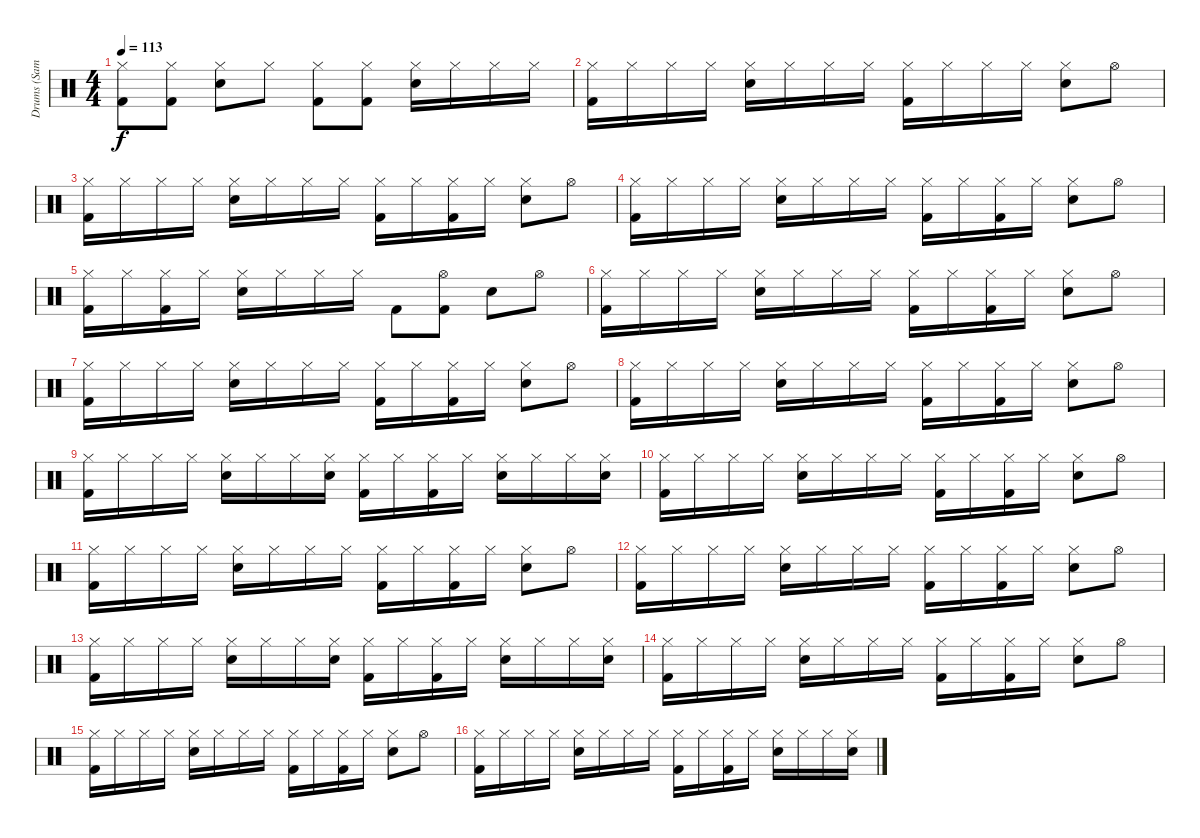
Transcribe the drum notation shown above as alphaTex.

\track ("Drums (Sam)" "Drums (Sam") {instrument percussion}
\staff {score}
\articulation defaults
\ts (4 4)
\tempo 113
\clef neutral
\ks c
("Hi-Hat (closed)" "Kick (hit) 2").8{dy f} ("Hi-Hat (closed)" "Kick (hit) 2").8 ("Hi-Hat (closed)" "Snare (hit) 2").8 "Hi-Hat (closed)".8 ("Hi-Hat (closed)" "Kick (hit) 2").8 ("Hi-Hat (closed)" "Kick (hit) 2").8 ("Hi-Hat (closed)" "Snare (hit) 2").16 "Hi-Hat (closed)".16 "Hi-Hat (closed)".16 "Hi-Hat (closed)".16 |
("Hi-Hat (closed)" "Kick (hit) 2").16 "Hi-Hat (closed)".16 "Hi-Hat (closed)".16 "Hi-Hat (closed)".16 ("Hi-Hat (closed)" "Snare (hit) 2").16 "Hi-Hat (closed)".16 "Hi-Hat (closed)".16 "Hi-Hat (closed)".16 ("Hi-Hat (closed)" "Kick (hit) 2").16 "Hi-Hat (closed)".16 "Hi-Hat (closed)".16 "Hi-Hat (closed)".16 ("Hi-Hat (closed)" "Snare (hit) 2").8 "Hi-Hat (open)".8 |
("Hi-Hat (closed)" "Kick (hit) 2").16 "Hi-Hat (closed)".16 "Hi-Hat (closed)".16 "Hi-Hat (closed)".16 ("Hi-Hat (closed)" "Snare (hit) 2").16 "Hi-Hat (closed)".16 "Hi-Hat (closed)".16 "Hi-Hat (closed)".16 ("Hi-Hat (closed)" "Kick (hit) 2").16 "Hi-Hat (closed)".16 ("Hi-Hat (closed)" "Kick (hit) 2").16 "Hi-Hat (closed)".16 ("Hi-Hat (closed)" "Snare (hit) 2").8 "Hi-Hat (open)".8 |
("Hi-Hat (closed)" "Kick (hit) 2").16 "Hi-Hat (closed)".16 "Hi-Hat (closed)".16 "Hi-Hat (closed)".16 ("Hi-Hat (closed)" "Snare (hit) 2").16 "Hi-Hat (closed)".16 "Hi-Hat (closed)".16 "Hi-Hat (closed)".16 ("Hi-Hat (closed)" "Kick (hit) 2").16 "Hi-Hat (closed)".16 ("Hi-Hat (closed)" "Kick (hit) 2").16 "Hi-Hat (closed)".16 ("Hi-Hat (closed)" "Snare (hit) 2").8 "Hi-Hat (open)".8 |
("Hi-Hat (closed)" "Kick (hit) 2").16 "Hi-Hat (closed)".16 ("Hi-Hat (closed)" "Kick (hit) 2").16 "Hi-Hat (closed)".16 ("Hi-Hat (closed)" "Snare (hit) 2").16 "Hi-Hat (closed)".16 "Hi-Hat (closed)".16 "Hi-Hat (closed)".16 "Kick (hit) 2".8 ("Hi-Hat (open)" "Kick (hit) 2").8 "Snare (hit) 2".8 "Hi-Hat (open)".8 |
("Hi-Hat (closed)" "Kick (hit) 2").16 "Hi-Hat (closed)".16 "Hi-Hat (closed)".16 "Hi-Hat (closed)".16 ("Hi-Hat (closed)" "Snare (hit) 2").16 "Hi-Hat (closed)".16 "Hi-Hat (closed)".16 "Hi-Hat (closed)".16 ("Hi-Hat (closed)" "Kick (hit) 2").16 "Hi-Hat (closed)".16 ("Hi-Hat (closed)" "Kick (hit) 2").16 "Hi-Hat (closed)".16 ("Hi-Hat (closed)" "Snare (hit) 2").8 "Hi-Hat (open)".8 |
("Hi-Hat (closed)" "Kick (hit) 2").16 "Hi-Hat (closed)".16 "Hi-Hat (closed)".16 "Hi-Hat (closed)".16 ("Hi-Hat (closed)" "Snare (hit) 2").16 "Hi-Hat (closed)".16 "Hi-Hat (closed)".16 "Hi-Hat (closed)".16 ("Hi-Hat (closed)" "Kick (hit) 2").16 "Hi-Hat (closed)".16 ("Hi-Hat (closed)" "Kick (hit) 2").16 "Hi-Hat (closed)".16 ("Hi-Hat (closed)" "Snare (hit) 2").8 "Hi-Hat (open)".8 |
("Hi-Hat (closed)" "Kick (hit) 2").16 "Hi-Hat (closed)".16 "Hi-Hat (closed)".16 "Hi-Hat (closed)".16 ("Hi-Hat (closed)" "Snare (hit) 2").16 "Hi-Hat (closed)".16 "Hi-Hat (closed)".16 "Hi-Hat (closed)".16 ("Hi-Hat (closed)" "Kick (hit) 2").16 "Hi-Hat (closed)".16 ("Hi-Hat (closed)" "Kick (hit) 2").16 "Hi-Hat (closed)".16 ("Hi-Hat (closed)" "Snare (hit) 2").8 "Hi-Hat (open)".8 |
("Hi-Hat (closed)" "Kick (hit) 2").16 "Hi-Hat (closed)".16 "Hi-Hat (closed)".16 "Hi-Hat (closed)".16 ("Hi-Hat (closed)" "Snare (hit) 2").16 "Hi-Hat (closed)".16 "Hi-Hat (closed)".16 ("Hi-Hat (closed)" "Snare (hit) 2").16 ("Hi-Hat (closed)" "Kick (hit) 2").16 "Hi-Hat (closed)".16 ("Hi-Hat (closed)" "Kick (hit) 2").16 "Hi-Hat (closed)".16 ("Hi-Hat (closed)" "Snare (hit) 2").16 "Hi-Hat (closed)".16 "Hi-Hat (closed)".16 ("Hi-Hat (closed)" "Snare (hit) 2").16 |
("Hi-Hat (closed)" "Kick (hit) 2").16 "Hi-Hat (closed)".16 "Hi-Hat (closed)".16 "Hi-Hat (closed)".16 ("Hi-Hat (closed)" "Snare (hit) 2").16 "Hi-Hat (closed)".16 "Hi-Hat (closed)".16 "Hi-Hat (closed)".16 ("Hi-Hat (closed)" "Kick (hit) 2").16 "Hi-Hat (closed)".16 ("Hi-Hat (closed)" "Kick (hit) 2").16 "Hi-Hat (closed)".16 ("Hi-Hat (closed)" "Snare (hit) 2").8 "Hi-Hat (open)".8 |
("Hi-Hat (closed)" "Kick (hit) 2").16 "Hi-Hat (closed)".16 "Hi-Hat (closed)".16 "Hi-Hat (closed)".16 ("Hi-Hat (closed)" "Snare (hit) 2").16 "Hi-Hat (closed)".16 "Hi-Hat (closed)".16 "Hi-Hat (closed)".16 ("Hi-Hat (closed)" "Kick (hit) 2").16 "Hi-Hat (closed)".16 ("Hi-Hat (closed)" "Kick (hit) 2").16 "Hi-Hat (closed)".16 ("Hi-Hat (closed)" "Snare (hit) 2").8 "Hi-Hat (open)".8 |
("Hi-Hat (closed)" "Kick (hit) 2").16 "Hi-Hat (closed)".16 "Hi-Hat (closed)".16 "Hi-Hat (closed)".16 ("Hi-Hat (closed)" "Snare (hit) 2").16 "Hi-Hat (closed)".16 "Hi-Hat (closed)".16 "Hi-Hat (closed)".16 ("Hi-Hat (closed)" "Kick (hit) 2").16 "Hi-Hat (closed)".16 ("Hi-Hat (closed)" "Kick (hit) 2").16 "Hi-Hat (closed)".16 ("Hi-Hat (closed)" "Snare (hit) 2").8 "Hi-Hat (open)".8 |
("Hi-Hat (closed)" "Kick (hit) 2").16 "Hi-Hat (closed)".16 "Hi-Hat (closed)".16 "Hi-Hat (closed)".16 ("Hi-Hat (closed)" "Snare (hit) 2").16 "Hi-Hat (closed)".16 "Hi-Hat (closed)".16 ("Hi-Hat (closed)" "Snare (hit) 2").16 ("Hi-Hat (closed)" "Kick (hit) 2").16 "Hi-Hat (closed)".16 ("Hi-Hat (closed)" "Kick (hit) 2").16 "Hi-Hat (closed)".16 ("Hi-Hat (closed)" "Snare (hit) 2").16 "Hi-Hat (closed)".16 "Hi-Hat (closed)".16 ("Hi-Hat (closed)" "Snare (hit) 2").16 |
("Hi-Hat (closed)" "Kick (hit) 2").16 "Hi-Hat (closed)".16 "Hi-Hat (closed)".16 "Hi-Hat (closed)".16 ("Hi-Hat (closed)" "Snare (hit) 2").16 "Hi-Hat (closed)".16 "Hi-Hat (closed)".16 "Hi-Hat (closed)".16 ("Hi-Hat (closed)" "Kick (hit) 2").16 "Hi-Hat (closed)".16 ("Hi-Hat (closed)" "Kick (hit) 2").16 "Hi-Hat (closed)".16 ("Hi-Hat (closed)" "Snare (hit) 2").8 "Hi-Hat (open)".8 |
("Hi-Hat (closed)" "Kick (hit) 2").16 "Hi-Hat (closed)".16 "Hi-Hat (closed)".16 "Hi-Hat (closed)".16 ("Hi-Hat (closed)" "Snare (hit) 2").16 "Hi-Hat (closed)".16 "Hi-Hat (closed)".16 "Hi-Hat (closed)".16 ("Hi-Hat (closed)" "Kick (hit) 2").16 "Hi-Hat (closed)".16 ("Hi-Hat (closed)" "Kick (hit) 2").16 "Hi-Hat (closed)".16 ("Hi-Hat (closed)" "Snare (hit) 2").8 "Hi-Hat (open)".8 |
("Hi-Hat (closed)" "Kick (hit) 2").16 "Hi-Hat (closed)".16 "Hi-Hat (closed)".16 "Hi-Hat (closed)".16 ("Hi-Hat (closed)" "Snare (hit) 2").16 "Hi-Hat (closed)".16 "Hi-Hat (closed)".16 "Hi-Hat (closed)".16 ("Hi-Hat (closed)" "Kick (hit) 2").16 "Hi-Hat (closed)".16 ("Hi-Hat (closed)" "Kick (hit) 2").16 "Hi-Hat (closed)".16 ("Hi-Hat (closed)" "Snare (hit) 2").16 "Hi-Hat (closed)".16 "Hi-Hat (closed)".16 ("Hi-Hat (closed)" "Snare (hit) 2").16
